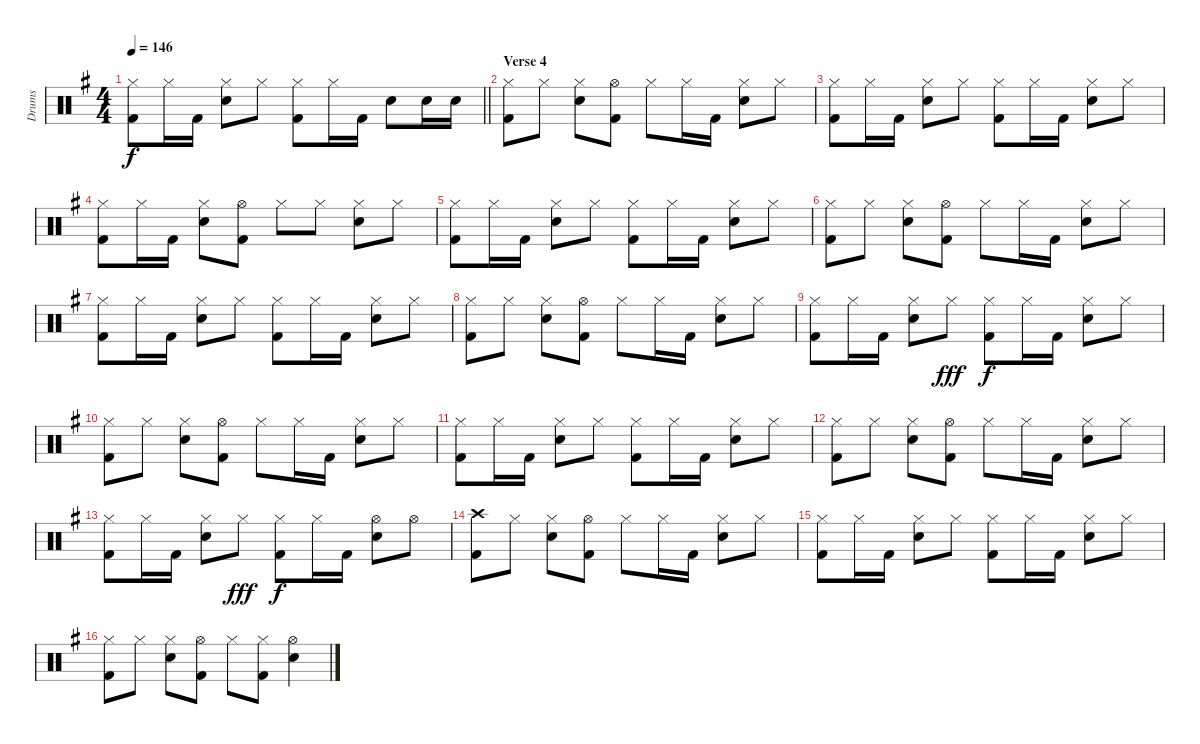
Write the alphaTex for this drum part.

\track ("Drums" "Drums") {instrument percussion}
\staff {score}
\articulation defaults
\ts (4 4)
\tempo 146
\clef neutral
\barLineRight lightlight
\ks g
("Kick (hit) 2" "Hi-Hat (closed)").8{dy f} "Hi-Hat (closed)".16 "Kick (hit) 2".16 ("Snare (hit) 2" "Hi-Hat (closed)").8 "Hi-Hat (closed)".8 ("Kick (hit) 2" "Hi-Hat (closed)").8 "Hi-Hat (closed)".16 "Kick (hit) 2".16 "Snare (hit) 2".8 "Snare (hit) 2".16 "Snare (hit) 2".16 |
\section ("" "Verse 4")
("Kick (hit) 2" "Hi-Hat (closed)").8 "Hi-Hat (closed)".8 ("Snare (hit) 2" "Hi-Hat (closed)").8 ("Kick (hit) 2" "Hi-Hat (open)").8 "Hi-Hat (closed)".8 "Hi-Hat (closed)".16 "Kick (hit) 2".16 ("Snare (hit) 2" "Hi-Hat (closed)").8 "Hi-Hat (closed)".8 |
("Kick (hit) 2" "Hi-Hat (closed)").8 "Hi-Hat (closed)".16 "Kick (hit) 2".16 ("Snare (hit) 2" "Hi-Hat (closed)").8 "Hi-Hat (closed)".8 ("Kick (hit) 2" "Hi-Hat (closed)").8 "Hi-Hat (closed)".16 "Kick (hit) 2".16 ("Snare (hit) 2" "Hi-Hat (closed)").8 "Hi-Hat (closed)".8 |
("Kick (hit) 2" "Hi-Hat (closed)").8 "Hi-Hat (closed)".16 "Kick (hit) 2".16 ("Snare (hit) 2" "Hi-Hat (closed)").8 ("Kick (hit) 2" "Hi-Hat (open)").8 "Hi-Hat (closed)".8 "Hi-Hat (closed)".8 ("Snare (hit) 2" "Hi-Hat (closed)").8 "Hi-Hat (closed)".8 |
("Kick (hit) 2" "Hi-Hat (closed)").8 "Hi-Hat (closed)".16 "Kick (hit) 2".16 ("Snare (hit) 2" "Hi-Hat (closed)").8 "Hi-Hat (closed)".8 ("Kick (hit) 2" "Hi-Hat (closed)").8 "Hi-Hat (closed)".16 "Kick (hit) 2".16 ("Snare (hit) 2" "Hi-Hat (closed)").8 "Hi-Hat (closed)".8 |
("Kick (hit) 2" "Hi-Hat (closed)").8 "Hi-Hat (closed)".8 ("Snare (hit) 2" "Hi-Hat (closed)").8 ("Kick (hit) 2" "Hi-Hat (open)").8 "Hi-Hat (closed)".8 "Hi-Hat (closed)".16 "Kick (hit) 2".16 ("Snare (hit) 2" "Hi-Hat (closed)").8 "Hi-Hat (closed)".8 |
("Kick (hit) 2" "Hi-Hat (closed)").8 "Hi-Hat (closed)".16 "Kick (hit) 2".16 ("Snare (hit) 2" "Hi-Hat (closed)").8 "Hi-Hat (closed)".8 ("Kick (hit) 2" "Hi-Hat (closed)").8 "Hi-Hat (closed)".16 "Kick (hit) 2".16 ("Snare (hit) 2" "Hi-Hat (closed)").8 "Hi-Hat (closed)".8 |
("Kick (hit) 2" "Hi-Hat (closed)").8 "Hi-Hat (closed)".8 ("Snare (hit) 2" "Hi-Hat (closed)").8 ("Kick (hit) 2" "Hi-Hat (open)").8 "Hi-Hat (closed)".8 "Hi-Hat (closed)".16 "Kick (hit) 2".16 ("Snare (hit) 2" "Hi-Hat (closed)").8 "Hi-Hat (closed)".8 |
("Kick (hit) 2" "Hi-Hat (closed)").8 "Hi-Hat (closed)".16 "Kick (hit) 2".16 ("Snare (hit) 2" "Hi-Hat (closed)").8 "Hi-Hat (closed)".8{dy fff} ("Kick (hit) 2" "Hi-Hat (closed)").8{dy f} "Hi-Hat (closed)".16 "Kick (hit) 2".16 ("Snare (hit) 2" "Hi-Hat (closed)").8 "Hi-Hat (closed)".8 |
("Kick (hit) 2" "Hi-Hat (closed)").8 "Hi-Hat (closed)".8 ("Snare (hit) 2" "Hi-Hat (closed)").8 ("Kick (hit) 2" "Hi-Hat (open)").8 "Hi-Hat (closed)".8 "Hi-Hat (closed)".16 "Kick (hit) 2".16 ("Snare (hit) 2" "Hi-Hat (closed)").8 "Hi-Hat (closed)".8 |
("Kick (hit) 2" "Hi-Hat (closed)").8 "Hi-Hat (closed)".16 "Kick (hit) 2".16 ("Snare (hit) 2" "Hi-Hat (closed)").8 "Hi-Hat (closed)".8 ("Kick (hit) 2" "Hi-Hat (closed)").8 "Hi-Hat (closed)".16 "Kick (hit) 2".16 ("Snare (hit) 2" "Hi-Hat (closed)").8 "Hi-Hat (closed)".8 |
("Kick (hit) 2" "Hi-Hat (closed)").8 "Hi-Hat (closed)".8 ("Snare (hit) 2" "Hi-Hat (closed)").8 ("Kick (hit) 2" "Hi-Hat (open)").8 "Hi-Hat (closed)".8 "Hi-Hat (closed)".16 "Kick (hit) 2".16 ("Snare (hit) 2" "Hi-Hat (closed)").8 "Hi-Hat (closed)".8 |
("Kick (hit) 2" "Hi-Hat (closed)").8 "Hi-Hat (closed)".16 "Kick (hit) 2".16 ("Snare (hit) 2" "Hi-Hat (closed)").8 "Hi-Hat (closed)".8{dy fff} ("Kick (hit) 2" "Hi-Hat (closed)").8{dy f} "Hi-Hat (closed)".16 "Kick (hit) 2".16 ("Snare (hit) 2" "Hi-Hat (open)").8 "Hi-Hat (open)".8 |
("Kick (hit) 2" "Crash high (hit)").8 "Hi-Hat (closed)".8 ("Snare (hit) 2" "Hi-Hat (closed)").8 ("Kick (hit) 2" "Hi-Hat (open)").8 "Hi-Hat (closed)".8 "Hi-Hat (closed)".16 "Kick (hit) 2".16 ("Snare (hit) 2" "Hi-Hat (closed)").8 "Hi-Hat (closed)".8 |
("Kick (hit) 2" "Hi-Hat (closed)").8 "Hi-Hat (closed)".16 "Kick (hit) 2".16 ("Snare (hit) 2" "Hi-Hat (closed)").8 "Hi-Hat (closed)".8 ("Kick (hit) 2" "Hi-Hat (closed)").8 "Hi-Hat (closed)".16 "Kick (hit) 2".16 ("Snare (hit) 2" "Hi-Hat (closed)").8 "Hi-Hat (closed)".8 |
("Kick (hit) 2" "Hi-Hat (closed)").8 "Hi-Hat (closed)".8 ("Snare (hit) 2" "Hi-Hat (closed)").8 ("Kick (hit) 2" "Hi-Hat (open)").8 "Hi-Hat (closed)".8 ("Kick (hit) 2" "Hi-Hat (closed)").8 ("Snare (hit) 2" "Hi-Hat (open)").4
